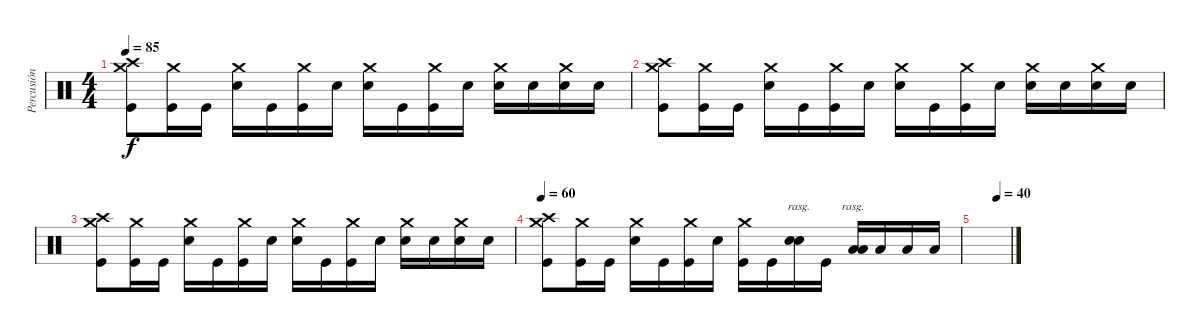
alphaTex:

\track ("Percusión" "Percusión") {instrument percussion}
\staff {score}
\articulation defaults
\ts (4 4)
\tempo 85
\clef neutral
\ks c
("Crash medium (hit)" "Crash high (hit)" "Kick (hit)").8{dy f} ("Crash medium (hit)" "Kick (hit)").16 "Kick (hit)".16 ("Crash medium (hit)" "Electric Snare (hit)").16 "Kick (hit)".16 ("Crash medium (hit)" "Kick (hit)").16 "Electric Snare (hit)".16 ("Crash medium (hit)" "Electric Snare (hit)").16 "Kick (hit)".16 ("Crash medium (hit)" "Kick (hit)").16 "Electric Snare (hit)".16 ("Crash medium (hit)" "Electric Snare (hit)").16 "Electric Snare (hit)".16 ("Crash medium (hit)" "Electric Snare (hit)").16 "Electric Snare (hit)".16 |
("Crash medium (hit)" "Crash high (hit)" "Kick (hit)").8 ("Crash medium (hit)" "Kick (hit)").16 "Kick (hit)".16 ("Crash medium (hit)" "Electric Snare (hit)").16 "Kick (hit)".16 ("Crash medium (hit)" "Kick (hit)").16 "Electric Snare (hit)".16 ("Crash medium (hit)" "Electric Snare (hit)").16 "Kick (hit)".16 ("Crash medium (hit)" "Kick (hit)").16 "Electric Snare (hit)".16 ("Crash medium (hit)" "Electric Snare (hit)").16 "Electric Snare (hit)".16 ("Crash medium (hit)" "Electric Snare (hit)").16 "Electric Snare (hit)".16 |
("Crash medium (hit)" "Crash high (hit)" "Kick (hit)").8 ("Crash medium (hit)" "Kick (hit)").16 "Kick (hit)".16 ("Crash medium (hit)" "Electric Snare (hit)").16 "Kick (hit)".16 ("Crash medium (hit)" "Kick (hit)").16 "Electric Snare (hit)".16 ("Crash medium (hit)" "Electric Snare (hit)").16 "Kick (hit)".16 ("Crash medium (hit)" "Kick (hit)").16 "Electric Snare (hit)".16 ("Crash medium (hit)" "Electric Snare (hit)").16 "Electric Snare (hit)".16 ("Crash medium (hit)" "Electric Snare (hit)").16 "Electric Snare (hit)".16 |
\tempo 60
("Crash medium (hit)" "Crash high (hit)" "Kick (hit)").8 ("Crash medium (hit)" "Kick (hit)").16 "Kick (hit)".16 ("Crash medium (hit)" "Electric Snare (hit)").16 "Kick (hit)".16 ("Crash medium (hit)" "Kick (hit)").16 "Electric Snare (hit)".16 ("Crash medium (hit)" "Kick (hit)").16 "Kick (hit)".16 ("Electric Snare (hit)" "Electric Snare (hit)").16{bd 240 rasg ii} "Kick (hit)".16 ("Low Tom (hit)" "Low Tom (hit)").16{bd 240 rasg ii} "Low Floor Tom (hit)".16 "Low Floor Tom (hit)".16 "Low Floor Tom (hit)".16 |
\tempo (40 0.625)
